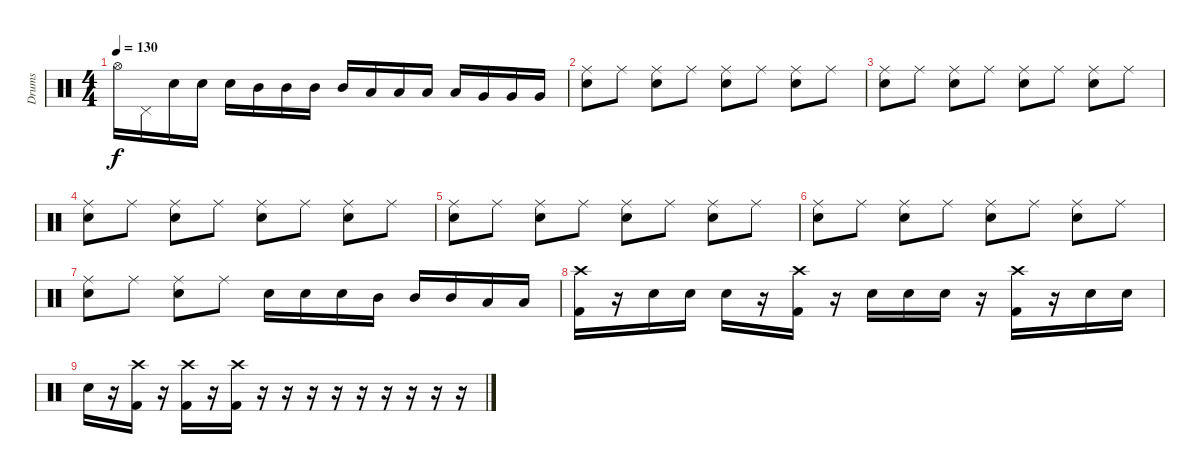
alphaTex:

\track ("Drums" "Drums") {instrument percussion}
\staff {score}
\articulation defaults
\ts (4 4)
\tempo 130
\clef neutral
\ks c "Hi-Hat (open)".16{dy f} "Pedal Hi-Hat (hit)".16 "Snare (hit) 2".16 "Snare (hit) 2".16 "Snare (hit) 2".16 "Mid Tom (hit)".16 "Mid Tom (hit)".16 "Mid Tom (hit)".16 "Mid Tom (hit)".16 "Low Tom (hit)".16 "Low Tom (hit)".16 "Low Tom (hit)".16 "Low Tom (hit)".16 "Very Low Tom (hit)".16 "Very Low Tom (hit)".16 "Very Low Tom (hit)".16
|
("Ride (middle)" "Snare (hit) 2").8 "Ride (middle)".8 ("Ride (middle)" "Snare (hit) 2").8 "Ride (middle)".8 ("Ride (middle)" "Snare (hit) 2").8 "Ride (middle)".8 ("Ride (middle)" "Snare (hit) 2").8 "Ride (middle)".8 |
("Ride (middle)" "Snare (hit) 2").8 "Ride (middle)".8 ("Ride (middle)" "Snare (hit) 2").8 "Ride (middle)".8 ("Ride (middle)" "Snare (hit) 2").8 "Ride (middle)".8 ("Ride (middle)" "Snare (hit) 2").8 "Ride (middle)".8 |
("Ride (middle)" "Snare (hit) 2").8 "Ride (middle)".8 ("Ride (middle)" "Snare (hit) 2").8 "Ride (middle)".8 ("Ride (middle)" "Snare (hit) 2").8 "Ride (middle)".8 ("Ride (middle)" "Snare (hit) 2").8 "Ride (middle)".8 |
("Ride (middle)" "Snare (hit) 2").8 "Ride (middle)".8 ("Ride (middle)" "Snare (hit) 2").8 "Ride (middle)".8 ("Ride (middle)" "Snare (hit) 2").8 "Ride (middle)".8 ("Ride (middle)" "Snare (hit) 2").8 "Ride (middle)".8 |
("Ride (middle)" "Snare (hit) 2").8 "Ride (middle)".8 ("Ride (middle)" "Snare (hit) 2").8 "Ride (middle)".8 ("Ride (middle)" "Snare (hit) 2").8 "Ride (middle)".8 ("Ride (middle)" "Snare (hit) 2").8 "Ride (middle)".8 |
("Ride (middle)" "Snare (hit) 2").8 "Ride (middle)".8 ("Ride (middle)" "Snare (hit) 2").8 "Ride (middle)".8 "Snare (hit) 2".16 "Snare (hit) 2".16 "Snare (hit) 2".16 "Mid Tom (hit)".16 "Mid Tom (hit)".16 "Mid Tom (hit)".16 "Low Tom (hit)".16 "Low Tom (hit)".16 |
("Crash high (hit)" "Kick (hit) 2").16 r.16 "Snare (hit) 2".16 "Snare (hit) 2".16 "Snare (hit) 2".16 r.16 ("Crash high (hit)" "Kick (hit) 2").16 r.16 "Snare (hit) 2".16 "Snare (hit) 2".16 "Snare (hit) 2".16 r.16 ("Kick (hit) 2" "Crash high (hit)").16 r.16 "Snare (hit) 2".16 "Snare (hit) 2".16 |
"Snare (hit) 2".16 r.16 ("Crash high (hit)" "Kick (hit) 2").16 r.16 ("Crash high (hit)" "Kick (hit) 2").16 r.16 ("Crash high (hit)" "Kick (hit) 2").16 r.16 r.16 r.16 r.16 r.16 r.16 r.16 r.16 r.16
